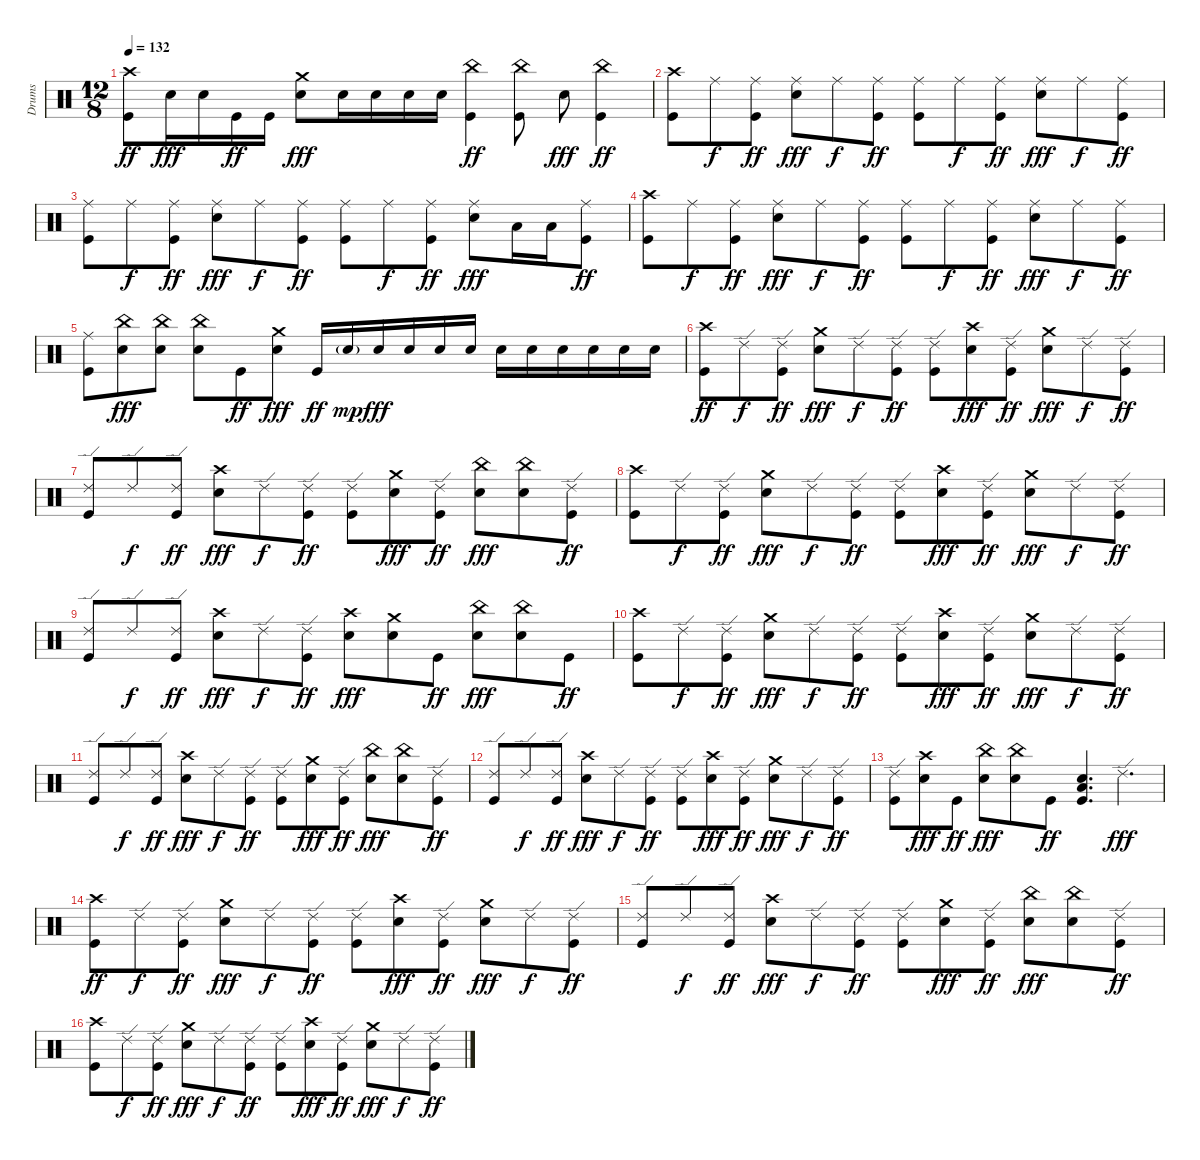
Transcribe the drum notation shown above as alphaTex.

\track ("Drums" "Drums") {instrument percussion}
\staff {score}
\articulation defaults
\ts (12 8)
\tempo 132
\clef neutral
\ks c
("Crash high (hit)" "Kick (hit)").8{dy ff} "Snare (hit) 2".16{dy fff} "Snare (hit) 2".16 "Kick (hit)".16{dy ff} "Kick (hit)".16 ("Crash medium (hit)" "Snare (hit) 2").8{dy fff} "Snare (hit) 2".16 "Snare (hit) 2".16 "Snare (hit) 2".16 "Snare (hit) 2".16 ("China (hit)" "Kick (hit)").4{dy ff} ("China (hit)" "Kick (hit)").8 "Snare (hit) 2".8{dy fff} ("China (hit)" "Kick (hit)").4{dy ff} |
("Crash high (hit)" "Kick (hit)").8 "Ride (middle)".8{dy f} ("Ride (middle)" "Kick (hit)").8{dy ff} ("Ride (middle)" "Snare (hit) 2").8{dy fff} "Ride (middle)".8{dy f} ("Ride (middle)" "Kick (hit)").8{dy ff} ("Ride (middle)" "Kick (hit)").8 "Ride (middle)".8{dy f} ("Ride (middle)" "Kick (hit)").8{dy ff} ("Ride (middle)" "Snare (hit) 2").8{dy fff} "Ride (middle)".8{dy f} ("Ride (middle)" "Kick (hit)").8{dy ff} |
("Ride (middle)" "Kick (hit)").8 "Ride (middle)".8{dy f} ("Ride (middle)" "Kick (hit)").8{dy ff} ("Ride (middle)" "Snare (hit) 2").8{dy fff} "Ride (middle)".8{dy f} ("Ride (middle)" "Kick (hit)").8{dy ff} ("Ride (middle)" "Kick (hit)").8 "Ride (middle)".8{dy f} ("Ride (middle)" "Kick (hit)").8{dy ff} ("Ride (middle)" "Snare (hit) 2").8{dy fff} "Low Tom (hit)".16 "Low Tom (hit)".16 ("Ride (middle)" "Kick (hit)").8{dy ff} |
("Crash high (hit)" "Kick (hit)").8 "Ride (middle)".8{dy f} ("Ride (middle)" "Kick (hit)").8{dy ff} ("Ride (middle)" "Snare (hit) 2").8{dy fff} "Ride (middle)".8{dy f} ("Ride (middle)" "Kick (hit)").8{dy ff} ("Ride (middle)" "Kick (hit)").8 "Ride (middle)".8{dy f} ("Ride (middle)" "Kick (hit)").8{dy ff} ("Ride (middle)" "Snare (hit) 2").8{dy fff} "Ride (middle)".8{dy f} ("Ride (middle)" "Kick (hit)").8{dy ff} |
("Ride (middle)" "Kick (hit)").8 ("China (hit)" "Snare (hit) 2").8{dy fff} ("China (hit)" "Snare (hit) 2").8 ("China (hit)" "Snare (hit) 2").8 "Kick (hit)".8{dy ff} ("Crash medium (hit)" "Snare (hit) 2").8{dy fff} "Kick (hit)".16{dy ff} "Snare (hit) 2"{g}.16{dy mp} "Snare (hit) 2".16{dy fff} "Snare (hit) 2".16 "Snare (hit) 2".16 "Snare (hit) 2".16 "Snare (hit) 2".16 "Snare (hit) 2".16 "Snare (hit) 2".16 "Snare (hit) 2".16 "Snare (hit) 2".16 "Snare (hit) 2".16 |
("Crash high (hit)" "Kick (hit)").8{dy ff} "Ride (edge) 2".8{dy f} ("Ride (edge) 2" "Kick (hit)").8{dy ff} ("Crash medium (hit)" "Snare (hit) 2").8{dy fff} "Ride (edge) 2".8{dy f} ("Ride (edge) 2" "Kick (hit)").8{dy ff} ("Ride (edge) 2" "Kick (hit)").8 ("Crash high (hit)" "Snare (hit) 2").8{dy fff} ("Ride (edge) 2" "Kick (hit)").8{dy ff} ("Crash medium (hit)" "Snare (hit) 2").8{dy fff} "Ride (edge) 2".8{dy f} ("Ride (edge) 2" "Kick (hit)").8{dy ff} |
("Ride (edge) 2" "Kick (hit)").8 "Ride (edge) 2".8{dy f} ("Ride (edge) 2" "Kick (hit)").8{dy ff} ("Crash high (hit)" "Snare (hit) 2").8{dy fff} "Ride (edge) 2".8{dy f} ("Ride (edge) 2" "Kick (hit)").8{dy ff} ("Ride (edge) 2" "Kick (hit)").8 ("Crash medium (hit)" "Snare (hit) 2").8{dy fff} ("Ride (edge) 2" "Kick (hit)").8{dy ff} ("China (hit)" "Snare (hit) 2").8{dy fff} ("China (hit)" "Snare (hit) 2").8 ("Ride (edge) 2" "Kick (hit)").8{dy ff} |
("Crash high (hit)" "Kick (hit)").8 "Ride (edge) 2".8{dy f} ("Ride (edge) 2" "Kick (hit)").8{dy ff} ("Crash medium (hit)" "Snare (hit) 2").8{dy fff} "Ride (edge) 2".8{dy f} ("Ride (edge) 2" "Kick (hit)").8{dy ff} ("Ride (edge) 2" "Kick (hit)").8 ("Crash high (hit)" "Snare (hit) 2").8{dy fff} ("Ride (edge) 2" "Kick (hit)").8{dy ff} ("Crash medium (hit)" "Snare (hit) 2").8{dy fff} "Ride (edge) 2".8{dy f} ("Ride (edge) 2" "Kick (hit)").8{dy ff} |
("Ride (edge) 2" "Kick (hit)").8 "Ride (edge) 2".8{dy f} ("Ride (edge) 2" "Kick (hit)").8{dy ff} ("Crash high (hit)" "Snare (hit) 2").8{dy fff} "Ride (edge) 2".8{dy f} ("Ride (edge) 2" "Kick (hit)").8{dy ff} ("Crash high (hit)" "Snare (hit) 2").8{dy fff} ("Crash medium (hit)" "Snare (hit) 2").8 "Kick (hit)".8{dy ff} ("China (hit)" "Snare (hit) 2").8{dy fff} ("China (hit)" "Snare (hit) 2").8 "Kick (hit)".8{dy ff} |
("Crash high (hit)" "Kick (hit)").8 "Ride (edge) 2".8{dy f} ("Ride (edge) 2" "Kick (hit)").8{dy ff} ("Crash medium (hit)" "Snare (hit) 2").8{dy fff} "Ride (edge) 2".8{dy f} ("Ride (edge) 2" "Kick (hit)").8{dy ff} ("Ride (edge) 2" "Kick (hit)").8 ("Crash high (hit)" "Snare (hit) 2").8{dy fff} ("Ride (edge) 2" "Kick (hit)").8{dy ff} ("Crash medium (hit)" "Snare (hit) 2").8{dy fff} "Ride (edge) 2".8{dy f} ("Ride (edge) 2" "Kick (hit)").8{dy ff} |
("Ride (edge) 2" "Kick (hit)").8 "Ride (edge) 2".8{dy f} ("Ride (edge) 2" "Kick (hit)").8{dy ff} ("Crash high (hit)" "Snare (hit) 2").8{dy fff} "Ride (edge) 2".8{dy f} ("Ride (edge) 2" "Kick (hit)").8{dy ff} ("Ride (edge) 2" "Kick (hit)").8 ("Crash medium (hit)" "Snare (hit) 2").8{dy fff} ("Ride (edge) 2" "Kick (hit)").8{dy ff} ("China (hit)" "Snare (hit) 2").8{dy fff} ("China (hit)" "Snare (hit) 2").8 ("Ride (edge) 2" "Kick (hit)").8{dy ff} |
("Ride (edge) 2" "Kick (hit)").8 "Ride (edge) 2".8{dy f} ("Ride (edge) 2" "Kick (hit)").8{dy ff} ("Crash high (hit)" "Snare (hit) 2").8{dy fff} "Ride (edge) 2".8{dy f} ("Ride (edge) 2" "Kick (hit)").8{dy ff} ("Ride (edge) 2" "Kick (hit)").8 ("Crash high (hit)" "Snare (hit) 2").8{dy fff} ("Ride (edge) 2" "Kick (hit)").8{dy ff} ("Crash medium (hit)" "Snare (hit) 2").8{dy fff} "Ride (edge) 2".8{dy f} ("Ride (edge) 2" "Kick (hit)").8{dy ff} |
("Ride (edge) 2" "Kick (hit)").8 ("Crash high (hit)" "Snare (hit) 2").8{dy fff} "Kick (hit)".8{dy ff} ("China (hit)" "Snare (hit) 2").8{dy fff} ("China (hit)" "Snare (hit) 2").8 "Kick (hit)".8{dy ff} ("Low Floor Tom (hit)" "Snare (hit) 2" "Kick (hit)").4{d} "Ride (edge) 2".4{d dy fff} |
("Crash high (hit)" "Kick (hit)").8{dy ff} "Ride (edge) 2".8{dy f} ("Ride (edge) 2" "Kick (hit)").8{dy ff} ("Crash medium (hit)" "Snare (hit) 2").8{dy fff} "Ride (edge) 2".8{dy f} ("Ride (edge) 2" "Kick (hit)").8{dy ff} ("Ride (edge) 2" "Kick (hit)").8 ("Crash high (hit)" "Snare (hit) 2").8{dy fff} ("Ride (edge) 2" "Kick (hit)").8{dy ff} ("Crash medium (hit)" "Snare (hit) 2").8{dy fff} "Ride (edge) 2".8{dy f} ("Ride (edge) 2" "Kick (hit)").8{dy ff} |
("Ride (edge) 2" "Kick (hit)").8 "Ride (edge) 2".8{dy f} ("Ride (edge) 2" "Kick (hit)").8{dy ff} ("Crash high (hit)" "Snare (hit) 2").8{dy fff} "Ride (edge) 2".8{dy f} ("Ride (edge) 2" "Kick (hit)").8{dy ff} ("Ride (edge) 2" "Kick (hit)").8 ("Crash medium (hit)" "Snare (hit) 2").8{dy fff} ("Ride (edge) 2" "Kick (hit)").8{dy ff} ("China (hit)" "Snare (hit) 2").8{dy fff} ("China (hit)" "Snare (hit) 2").8 ("Ride (edge) 2" "Kick (hit)").8{dy ff} |
("Crash high (hit)" "Kick (hit)").8 "Ride (edge) 2".8{dy f} ("Ride (edge) 2" "Kick (hit)").8{dy ff} ("Crash medium (hit)" "Snare (hit) 2").8{dy fff} "Ride (edge) 2".8{dy f} ("Ride (edge) 2" "Kick (hit)").8{dy ff} ("Ride (edge) 2" "Kick (hit)").8 ("Crash high (hit)" "Snare (hit) 2").8{dy fff} ("Ride (edge) 2" "Kick (hit)").8{dy ff} ("Crash medium (hit)" "Snare (hit) 2").8{dy fff} "Ride (edge) 2".8{dy f} ("Ride (edge) 2" "Kick (hit)").8{dy ff}
